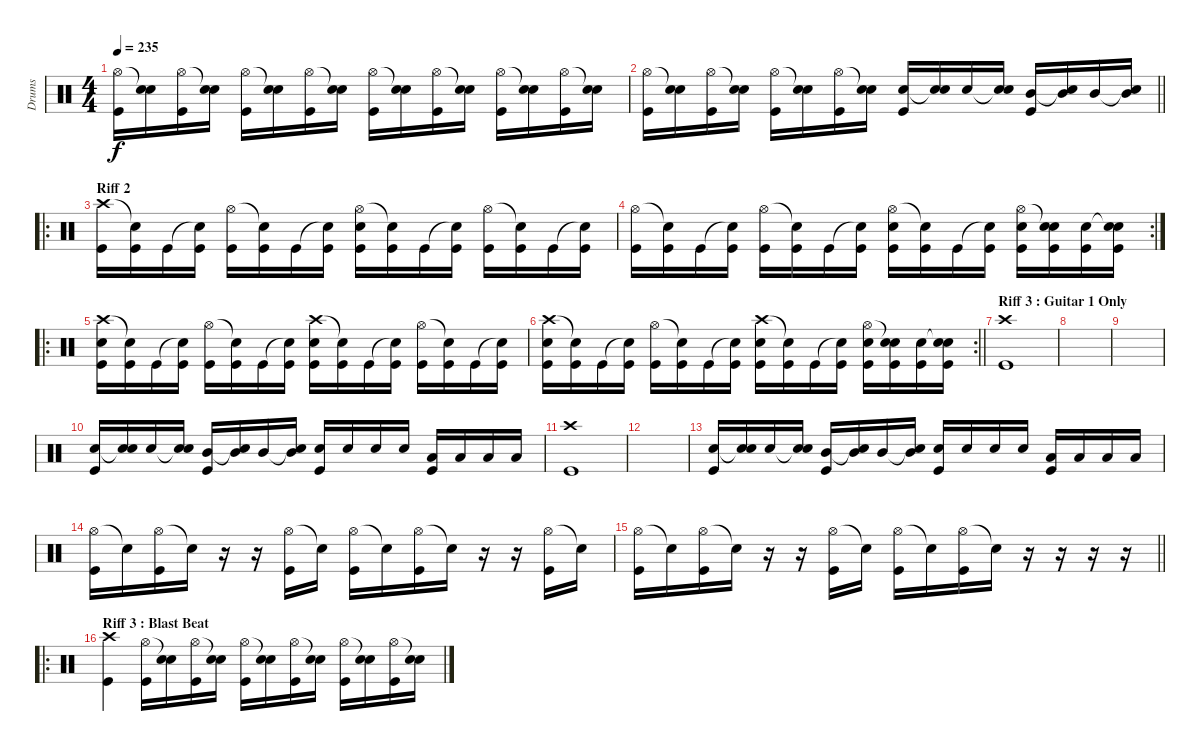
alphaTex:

\track ("Drums" "Drums") {instrument percussion}
\staff {score}
\articulation defaults
\ts (4 4)
\tempo 235
\clef neutral
\ks c
("Hi-Hat (open)" "Kick (hit)").16{dy f} ("Snare (hit)"{t} "Electric Snare (hit)").16 ("Hi-Hat (open)" "Kick (hit)").16 ("Snare (hit)"{t} "Electric Snare (hit)").16 ("Hi-Hat (open)" "Kick (hit)").16 ("Snare (hit)"{t} "Electric Snare (hit)").16 ("Hi-Hat (open)" "Kick (hit)").16 ("Snare (hit)"{t} "Electric Snare (hit)").16 ("Hi-Hat (open)" "Kick (hit)").16 ("Snare (hit)"{t} "Electric Snare (hit)").16 ("Hi-Hat (open)" "Kick (hit)").16 ("Snare (hit)"{t} "Electric Snare (hit)").16 ("Hi-Hat (open)" "Kick (hit)").16 ("Snare (hit)"{t} "Electric Snare (hit)").16 ("Hi-Hat (open)" "Kick (hit)").16 ("Snare (hit)"{t} "Electric Snare (hit)").16 |
\barLineRight lightlight
("Hi-Hat (open)" "Kick (hit)").16 ("Snare (hit)"{t} "Electric Snare (hit)").16 ("Hi-Hat (open)" "Kick (hit)").16 ("Snare (hit)"{t} "Electric Snare (hit)").16 ("Hi-Hat (open)" "Kick (hit)").16 ("Snare (hit)"{t} "Electric Snare (hit)").16 ("Hi-Hat (open)" "Kick (hit)").16 ("Snare (hit)"{t} "Electric Snare (hit)").16 ("Electric Snare (hit)" "Kick (hit)").16 ("Snare (hit)"{t} "Electric Snare (hit)").16 "Electric Snare (hit)".16 ("Snare (hit)"{t} "Electric Snare (hit)").16 ("Mid Tom (hit)" "Kick (hit)").16 ("Snare (hit)"{t} "Mid Tom (hit)").16 "Mid Tom (hit)".16 ("Snare (hit)"{t} "Mid Tom (hit)").16 |
\ro
\section ("" "Riff 2")
("Crash high (hit)" "Kick (hit)").16 ("Snare (hit)"{t} "Kick (hit)").16 "Kick (hit)".16 ("Snare (hit)"{t} "Kick (hit)").16 ("Hi-Hat (open)" "Kick (hit)").16 ("Snare (hit)"{t} "Kick (hit)").16 "Kick (hit)".16 ("Snare (hit)"{t} "Kick (hit)").16 ("Hi-Hat (open)" "Electric Snare (hit)" "Kick (hit)").16 ("Snare (hit)"{t} "Kick (hit)").16 "Kick (hit)".16 ("Snare (hit)"{t} "Kick (hit)").16 ("Hi-Hat (open)" "Kick (hit)").16 ("Snare (hit)"{t} "Kick (hit)").16 "Kick (hit)".16 ("Snare (hit)"{t} "Kick (hit)").16 |
\rc 2
("Hi-Hat (open)" "Kick (hit)").16 ("Snare (hit)"{t} "Kick (hit)").16 "Kick (hit)".16 ("Snare (hit)"{t} "Kick (hit)").16 ("Hi-Hat (open)" "Kick (hit)").16 ("Snare (hit)"{t} "Kick (hit)").16 "Kick (hit)".16 ("Snare (hit)"{t} "Kick (hit)").16 ("Hi-Hat (open)" "Electric Snare (hit)" "Kick (hit)").16 ("Snare (hit)"{t} "Kick (hit)").16 "Kick (hit)".16 ("Snare (hit)"{t} "Kick (hit)").16 ("Hi-Hat (open)" "Electric Snare (hit)" "Kick (hit)").16 ("Snare (hit)"{t} "Electric Snare (hit)" "Kick (hit)").16 ("Electric Snare (hit)" "Kick (hit)").16 ("Snare (hit)"{t} "Electric Snare (hit)" "Kick (hit)").16 |
\ro
("Crash high (hit)" "Electric Snare (hit)" "Kick (hit)").16 ("Snare (hit)"{t} "Kick (hit)").16 "Kick (hit)".16 ("Snare (hit)"{t} "Kick (hit)").16 ("Hi-Hat (open)" "Kick (hit)").16 ("Snare (hit)"{t} "Kick (hit)").16 "Kick (hit)".16 ("Snare (hit)"{t} "Kick (hit)").16 ("Crash high (hit)" "Electric Snare (hit)" "Kick (hit)").16 ("Snare (hit)"{t} "Kick (hit)").16 "Kick (hit)".16 ("Snare (hit)"{t} "Kick (hit)").16 ("Hi-Hat (open)" "Kick (hit)").16 ("Snare (hit)"{t} "Kick (hit)").16 "Kick (hit)".16 ("Snare (hit)"{t} "Kick (hit)").16 |
\rc 2
\barLineRight lightlight
("Crash high (hit)" "Electric Snare (hit)" "Kick (hit)").16 ("Snare (hit)"{t} "Kick (hit)").16 "Kick (hit)".16 ("Snare (hit)"{t} "Kick (hit)").16 ("Hi-Hat (open)" "Kick (hit)").16 ("Snare (hit)"{t} "Kick (hit)").16 "Kick (hit)".16 ("Snare (hit)"{t} "Kick (hit)").16 ("Crash high (hit)" "Electric Snare (hit)" "Kick (hit)").16 ("Snare (hit)"{t} "Kick (hit)").16 "Kick (hit)".16 ("Snare (hit)"{t} "Kick (hit)").16 ("Hi-Hat (open)" "Electric Snare (hit)" "Kick (hit)").16 ("Snare (hit)"{t} "Electric Snare (hit)" "Kick (hit)").16 ("Electric Snare (hit)" "Kick (hit)").16 ("Snare (hit)"{t} "Electric Snare (hit)" "Kick (hit)").16 |
\section ("" "Riff 3 : Guitar 1 Only")
("Crash high (hit)" "Kick (hit)").1 |
|
|
("Electric Snare (hit)" "Kick (hit)").16 ("Snare (hit)"{t} "Electric Snare (hit)").16 "Electric Snare (hit)".16 ("Snare (hit)"{t} "Electric Snare (hit)").16 ("Mid Tom (hit)" "Kick (hit)").16 ("Snare (hit)"{t} "Mid Tom (hit)").16 "Mid Tom (hit)".16 ("Snare (hit)"{t} "Mid Tom (hit)").16 ("Electric Snare (hit)" "Kick (hit)").16 "Electric Snare (hit)".16 "Electric Snare (hit)".16 "Electric Snare (hit)".16 ("Low Tom (hit)" "Kick (hit)").16 "Low Tom (hit)".16 "Low Tom (hit)".16 "Low Tom (hit)".16 |
("Crash high (hit)" "Kick (hit)").1 |
|
("Electric Snare (hit)" "Kick (hit)").16 ("Snare (hit)"{t} "Electric Snare (hit)").16 "Electric Snare (hit)".16 ("Snare (hit)"{t} "Electric Snare (hit)").16 ("Mid Tom (hit)" "Kick (hit)").16 ("Snare (hit)"{t} "Mid Tom (hit)").16 "Mid Tom (hit)".16 ("Snare (hit)"{t} "Mid Tom (hit)").16 ("Electric Snare (hit)" "Kick (hit)").16 "Electric Snare (hit)".16 "Electric Snare (hit)".16 "Electric Snare (hit)".16 ("Low Tom (hit)" "Kick (hit)").16 "Low Tom (hit)".16 "Low Tom (hit)".16 "Low Tom (hit)".16 |
("Hi-Hat (open)" "Kick (hit)").16 "Snare (hit)"{t}.16 ("Hi-Hat (open)" "Kick (hit)").16 "Snare (hit)"{t}.16 r.16 r.16 ("Hi-Hat (open)" "Kick (hit)").16 "Snare (hit)"{t}.16 ("Hi-Hat (open)" "Kick (hit)").16 "Snare (hit)"{t}.16 ("Hi-Hat (open)" "Kick (hit)").16 "Snare (hit)"{t}.16 r.16 r.16 ("Hi-Hat (open)" "Kick (hit)").16 "Snare (hit)"{t}.16 |
\barLineRight lightlight
("Hi-Hat (open)" "Kick (hit)").16 "Snare (hit)"{t}.16 ("Hi-Hat (open)" "Kick (hit)").16 "Snare (hit)"{t}.16 r.16 r.16 ("Hi-Hat (open)" "Kick (hit)").16 "Snare (hit)"{t}.16 ("Hi-Hat (open)" "Kick (hit)").16 "Snare (hit)"{t}.16 ("Hi-Hat (open)" "Kick (hit)").16 "Snare (hit)"{t}.16 r.16 r.16 r.16 r.16 |
\ro
\section ("" "Riff 3 : Blast Beat")
("Crash high (hit)" "Kick (hit)").4 ("Hi-Hat (open)" "Kick (hit)").16 ("Snare (hit)"{t} "Electric Snare (hit)").16 ("Hi-Hat (open)" "Kick (hit)").16 ("Snare (hit)"{t} "Electric Snare (hit)").16 ("Hi-Hat (open)" "Kick (hit)").16 ("Snare (hit)"{t} "Electric Snare (hit)").16 ("Hi-Hat (open)" "Kick (hit)").16 ("Snare (hit)"{t} "Electric Snare (hit)").16 ("Hi-Hat (open)" "Kick (hit)").16 ("Snare (hit)"{t} "Electric Snare (hit)").16 ("Hi-Hat (open)" "Kick (hit)").16 ("Snare (hit)"{t} "Electric Snare (hit)").16
